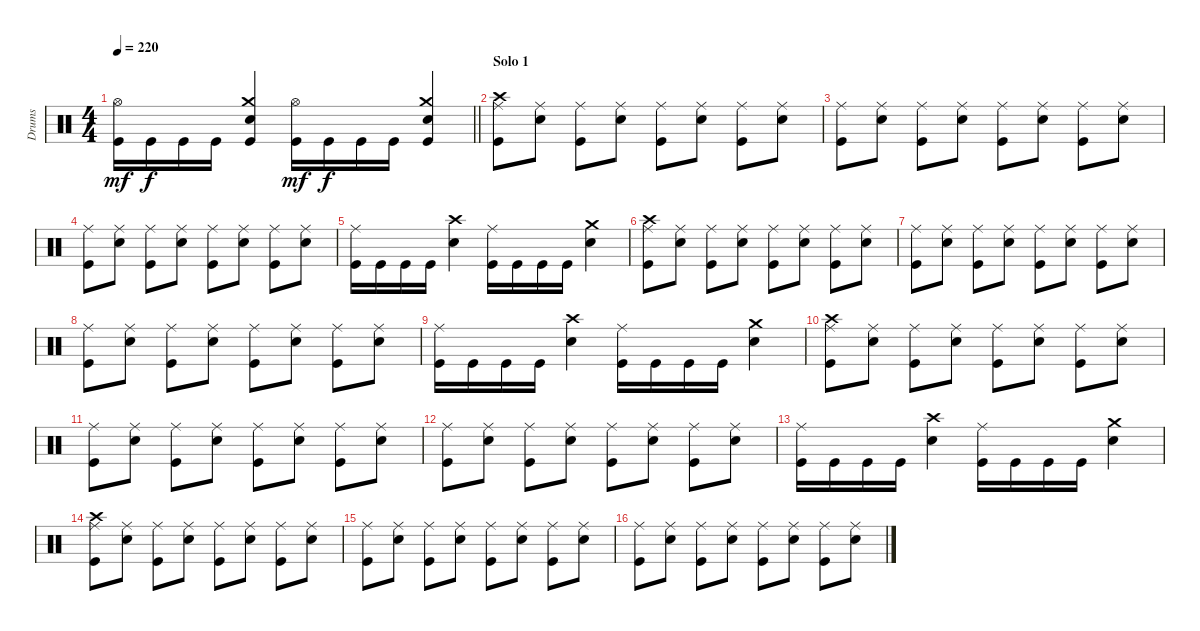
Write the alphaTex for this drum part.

\track ("Drums" "Drums") {instrument percussion}
\staff {score}
\articulation defaults
\ts (4 4)
\tempo 220
\clef neutral
\barLineRight lightlight
\ks c
("Hi-Hat (open)" "Kick (hit)").16{dy mf} "Kick (hit)".16{dy f} "Kick (hit)".16 "Kick (hit)".16 ("Crash medium (hit)" "Electric Snare (hit)" "Kick (hit)").4 ("Hi-Hat (open)" "Kick (hit)").16{dy mf} "Kick (hit)".16{dy f} "Kick (hit)".16 "Kick (hit)".16 ("Crash medium (hit)" "Electric Snare (hit)" "Kick (hit)").4 |
\section ("" "Solo 1")
("Crash high (hit)" "Ride (middle)" "Kick (hit)").8 ("Ride (middle)" "Electric Snare (hit)").8 ("Ride (middle)" "Kick (hit)").8 ("Ride (middle)" "Electric Snare (hit)").8 ("Ride (middle)" "Kick (hit)").8 ("Ride (middle)" "Electric Snare (hit)").8 ("Ride (middle)" "Kick (hit)").8 ("Ride (middle)" "Electric Snare (hit)").8 |
("Ride (middle)" "Kick (hit)").8 ("Ride (middle)" "Electric Snare (hit)").8 ("Ride (middle)" "Kick (hit)").8 ("Ride (middle)" "Electric Snare (hit)").8 ("Ride (middle)" "Kick (hit)").8 ("Ride (middle)" "Electric Snare (hit)").8 ("Ride (middle)" "Kick (hit)").8 ("Ride (middle)" "Electric Snare (hit)").8 |
("Ride (middle)" "Kick (hit)").8 ("Ride (middle)" "Electric Snare (hit)").8 ("Ride (middle)" "Kick (hit)").8 ("Ride (middle)" "Electric Snare (hit)").8 ("Ride (middle)" "Kick (hit)").8 ("Ride (middle)" "Electric Snare (hit)").8 ("Ride (middle)" "Kick (hit)").8 ("Ride (middle)" "Electric Snare (hit)").8 |
("Ride (middle)" "Kick (hit)").16 "Kick (hit)".16 "Kick (hit)".16 "Kick (hit)".16 ("Crash high (hit)" "Electric Snare (hit)").4 ("Ride (middle)" "Kick (hit)").16 "Kick (hit)".16 "Kick (hit)".16 "Kick (hit)".16 ("Crash medium (hit)" "Electric Snare (hit)").4 |
("Crash high (hit)" "Ride (middle)" "Kick (hit)").8 ("Ride (middle)" "Electric Snare (hit)").8 ("Ride (middle)" "Kick (hit)").8 ("Ride (middle)" "Electric Snare (hit)").8 ("Ride (middle)" "Kick (hit)").8 ("Ride (middle)" "Electric Snare (hit)").8 ("Ride (middle)" "Kick (hit)").8 ("Ride (middle)" "Electric Snare (hit)").8 |
("Ride (middle)" "Kick (hit)").8 ("Ride (middle)" "Electric Snare (hit)").8 ("Ride (middle)" "Kick (hit)").8 ("Ride (middle)" "Electric Snare (hit)").8 ("Ride (middle)" "Kick (hit)").8 ("Ride (middle)" "Electric Snare (hit)").8 ("Ride (middle)" "Kick (hit)").8 ("Ride (middle)" "Electric Snare (hit)").8 |
("Ride (middle)" "Kick (hit)").8 ("Ride (middle)" "Electric Snare (hit)").8 ("Ride (middle)" "Kick (hit)").8 ("Ride (middle)" "Electric Snare (hit)").8 ("Ride (middle)" "Kick (hit)").8 ("Ride (middle)" "Electric Snare (hit)").8 ("Ride (middle)" "Kick (hit)").8 ("Ride (middle)" "Electric Snare (hit)").8 |
("Ride (middle)" "Kick (hit)").16 "Kick (hit)".16 "Kick (hit)".16 "Kick (hit)".16 ("Crash high (hit)" "Electric Snare (hit)").4 ("Ride (middle)" "Kick (hit)").16 "Kick (hit)".16 "Kick (hit)".16 "Kick (hit)".16 ("Crash medium (hit)" "Electric Snare (hit)").4 |
("Crash high (hit)" "Ride (middle)" "Kick (hit)").8 ("Ride (middle)" "Electric Snare (hit)").8 ("Ride (middle)" "Kick (hit)").8 ("Ride (middle)" "Electric Snare (hit)").8 ("Ride (middle)" "Kick (hit)").8 ("Ride (middle)" "Electric Snare (hit)").8 ("Ride (middle)" "Kick (hit)").8 ("Ride (middle)" "Electric Snare (hit)").8 |
("Ride (middle)" "Kick (hit)").8 ("Ride (middle)" "Electric Snare (hit)").8 ("Ride (middle)" "Kick (hit)").8 ("Ride (middle)" "Electric Snare (hit)").8 ("Ride (middle)" "Kick (hit)").8 ("Ride (middle)" "Electric Snare (hit)").8 ("Ride (middle)" "Kick (hit)").8 ("Ride (middle)" "Electric Snare (hit)").8 |
("Ride (middle)" "Kick (hit)").8 ("Ride (middle)" "Electric Snare (hit)").8 ("Ride (middle)" "Kick (hit)").8 ("Ride (middle)" "Electric Snare (hit)").8 ("Ride (middle)" "Kick (hit)").8 ("Ride (middle)" "Electric Snare (hit)").8 ("Ride (middle)" "Kick (hit)").8 ("Ride (middle)" "Electric Snare (hit)").8 |
("Ride (middle)" "Kick (hit)").16 "Kick (hit)".16 "Kick (hit)".16 "Kick (hit)".16 ("Crash high (hit)" "Electric Snare (hit)").4 ("Ride (middle)" "Kick (hit)").16 "Kick (hit)".16 "Kick (hit)".16 "Kick (hit)".16 ("Crash medium (hit)" "Electric Snare (hit)").4 |
("Crash high (hit)" "Ride (middle)" "Kick (hit)").8 ("Ride (middle)" "Electric Snare (hit)").8 ("Ride (middle)" "Kick (hit)").8 ("Ride (middle)" "Electric Snare (hit)").8 ("Ride (middle)" "Kick (hit)").8 ("Ride (middle)" "Electric Snare (hit)").8 ("Ride (middle)" "Kick (hit)").8 ("Ride (middle)" "Electric Snare (hit)").8 |
("Ride (middle)" "Kick (hit)").8 ("Ride (middle)" "Electric Snare (hit)").8 ("Ride (middle)" "Kick (hit)").8 ("Ride (middle)" "Electric Snare (hit)").8 ("Ride (middle)" "Kick (hit)").8 ("Ride (middle)" "Electric Snare (hit)").8 ("Ride (middle)" "Kick (hit)").8 ("Ride (middle)" "Electric Snare (hit)").8 |
("Ride (middle)" "Kick (hit)").8 ("Ride (middle)" "Electric Snare (hit)").8 ("Ride (middle)" "Kick (hit)").8 ("Ride (middle)" "Electric Snare (hit)").8 ("Ride (middle)" "Kick (hit)").8 ("Ride (middle)" "Electric Snare (hit)").8 ("Ride (middle)" "Kick (hit)").8 ("Ride (middle)" "Electric Snare (hit)").8
